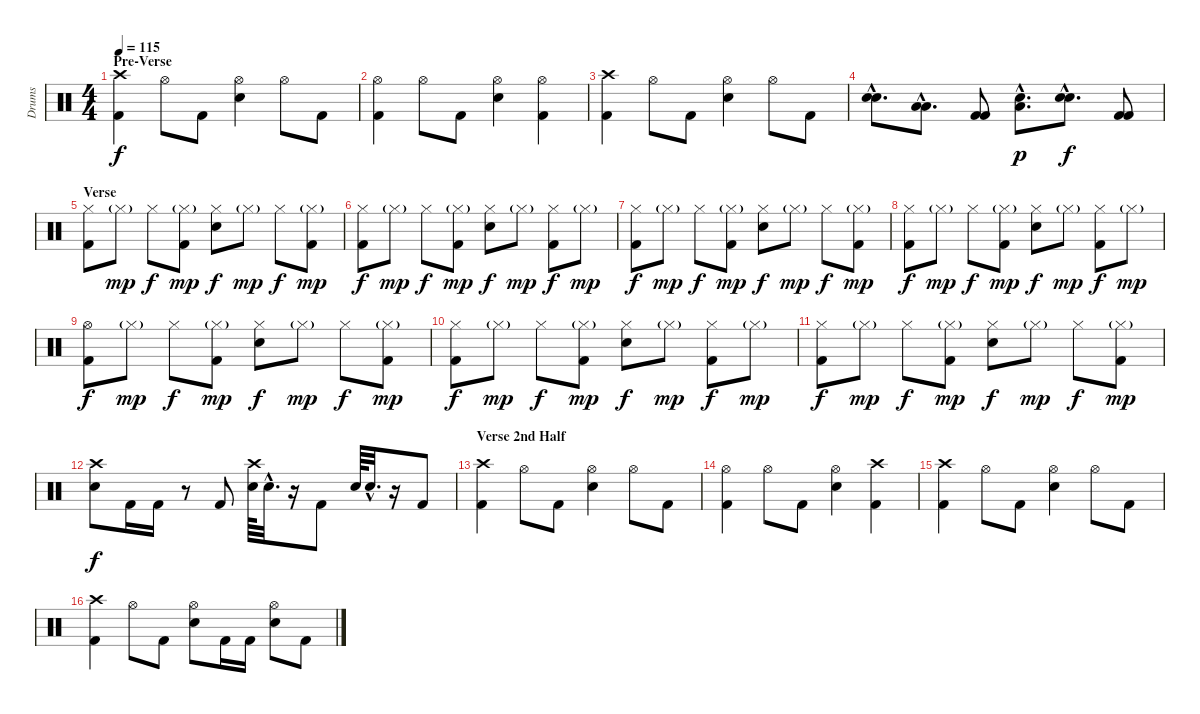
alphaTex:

\track ("Drums" "Drums") {instrument percussion}
\staff {score}
\articulation defaults
\ts (4 4)
\section ("" "Pre-Verse")
\tempo 115
\clef neutral
\ks c
("Crash high (hit)" "Kick (hit) 2").4{dy f balance 8} "Hi-Hat (open)".8 "Kick (hit) 2".8 ("Hi-Hat (open)" "Snare (hit) 2").4 "Hi-Hat (open)".8 "Kick (hit) 2".8 |
("Hi-Hat (open)" "Kick (hit) 2").4 "Hi-Hat (open)".8 "Kick (hit) 2".8 ("Hi-Hat (open)" "Snare (hit) 2").4 ("Hi-Hat (open)" "Kick (hit) 2").4 |
("Crash high (hit)" "Kick (hit) 2").4 "Hi-Hat (open)".8 "Kick (hit) 2".8 ("Hi-Hat (open)" "Snare (hit) 2").4 "Hi-Hat (open)".8 "Kick (hit) 2".8 |
("Snare (hit) 2"{hac} "Snare (hit) 2"{hac}).8{d} ("Low Floor Tom (hit)"{hac} "Low Floor Tom (hit)"{hac}).8{d} ("Kick (hit) 2" "Kick (hit) 2").8 ("Low Floor Tom (hit)"{hac} "Snare (hit) 2"{hac}).8{d dy p} ("Snare (hit) 2"{hac} "Snare (hit) 2"{hac}).8{d dy f} ("Kick (hit) 2" "Kick (hit) 2").8 |
\section ("" "Verse")
("Hi-Hat (closed)" "Kick (hit) 2").8 "Hi-Hat (closed)"{g}.8{dy mp} "Hi-Hat (closed)".8{dy f} ("Hi-Hat (closed)"{g} "Kick (hit) 2").8{dy mp} ("Hi-Hat (closed)" "Snare (hit) 2").8{dy f} "Hi-Hat (closed)"{g}.8{dy mp} "Hi-Hat (closed)".8{dy f} ("Hi-Hat (closed)"{g} "Kick (hit) 2").8{dy mp} |
("Hi-Hat (closed)" "Kick (hit) 2").8{dy f} "Hi-Hat (closed)"{g}.8{dy mp} "Hi-Hat (closed)".8{dy f} ("Hi-Hat (closed)"{g} "Kick (hit) 2").8{dy mp} ("Hi-Hat (closed)" "Snare (hit) 2").8{dy f} "Hi-Hat (closed)"{g}.8{dy mp} ("Hi-Hat (closed)" "Kick (hit) 2").8{dy f} "Hi-Hat (closed)"{g}.8{dy mp} |
("Hi-Hat (closed)" "Kick (hit) 2").8{dy f} "Hi-Hat (closed)"{g}.8{dy mp} "Hi-Hat (closed)".8{dy f} ("Hi-Hat (closed)"{g} "Kick (hit) 2").8{dy mp} ("Hi-Hat (closed)" "Snare (hit) 2").8{dy f} "Hi-Hat (closed)"{g}.8{dy mp} "Hi-Hat (closed)".8{dy f} ("Hi-Hat (closed)"{g} "Kick (hit) 2").8{dy mp} |
("Hi-Hat (closed)" "Kick (hit) 2").8{dy f} "Hi-Hat (closed)"{g}.8{dy mp} "Hi-Hat (closed)".8{dy f} ("Hi-Hat (closed)"{g} "Kick (hit) 2").8{dy mp} ("Hi-Hat (closed)" "Snare (hit) 2").8{dy f} "Hi-Hat (closed)"{g}.8{dy mp} ("Hi-Hat (closed)" "Kick (hit) 2").8{dy f} "Hi-Hat (closed)"{g}.8{dy mp} |
("Hi-Hat (open)" "Kick (hit) 2").8{dy f} "Hi-Hat (closed)"{g}.8{dy mp} "Hi-Hat (closed)".8{dy f} ("Hi-Hat (closed)"{g} "Kick (hit) 2").8{dy mp} ("Hi-Hat (closed)" "Snare (hit) 2").8{dy f} "Hi-Hat (closed)"{g}.8{dy mp} "Hi-Hat (closed)".8{dy f} ("Hi-Hat (closed)"{g} "Kick (hit) 2").8{dy mp} |
("Hi-Hat (closed)" "Kick (hit) 2").8{dy f} "Hi-Hat (closed)"{g}.8{dy mp} "Hi-Hat (closed)".8{dy f} ("Hi-Hat (closed)"{g} "Kick (hit) 2").8{dy mp} ("Hi-Hat (closed)" "Snare (hit) 2").8{dy f} "Hi-Hat (closed)"{g}.8{dy mp} ("Hi-Hat (closed)" "Kick (hit) 2").8{dy f} "Hi-Hat (closed)"{g}.8{dy mp} |
("Hi-Hat (closed)" "Kick (hit) 2").8{dy f} "Hi-Hat (closed)"{g}.8{dy mp} "Hi-Hat (closed)".8{dy f} ("Hi-Hat (closed)"{g} "Kick (hit) 2").8{dy mp} ("Hi-Hat (closed)" "Snare (hit) 2").8{dy f} "Hi-Hat (closed)"{g}.8{dy mp} "Hi-Hat (closed)".8{dy f} ("Hi-Hat (closed)"{g} "Kick (hit) 2").8{dy mp} |
("Crash high (hit)" "Snare (hit) 2").8{dy f} "Kick (hit) 2".16 "Kick (hit) 2".16 r.8 "Kick (hit) 2".8 ("Crash high (hit)" "Snare (hit) 2").64 "Snare (hit) 2"{hac}.32{d} r.16 "Kick (hit) 2".8 "Snare (hit) 2".64 "Snare (hit) 2"{hac}.32{d} r.16 "Kick (hit) 2".8 |
\section ("" "Verse 2nd Half")
("Crash high (hit)" "Kick (hit) 2").4 "Hi-Hat (open)".8 "Kick (hit) 2".8 ("Hi-Hat (open)" "Snare (hit) 2").4 "Hi-Hat (open)".8 "Kick (hit) 2".8 |
("Hi-Hat (open)" "Kick (hit) 2").4 "Hi-Hat (open)".8 "Kick (hit) 2".8 ("Hi-Hat (open)" "Snare (hit) 2").4 ("Crash high (hit)" "Kick (hit) 2").4 |
("Crash high (hit)" "Kick (hit) 2").4 "Hi-Hat (open)".8 "Kick (hit) 2".8 ("Hi-Hat (open)" "Snare (hit) 2").4 "Hi-Hat (open)".8 "Kick (hit) 2".8 |
("Crash high (hit)" "Kick (hit) 2").4 "Hi-Hat (open)".8 "Kick (hit) 2".8 ("Hi-Hat (open)" "Snare (hit) 2").8 "Kick (hit) 2".16 "Kick (hit) 2".16 ("Hi-Hat (open)" "Snare (hit) 2").8 "Kick (hit) 2".8
